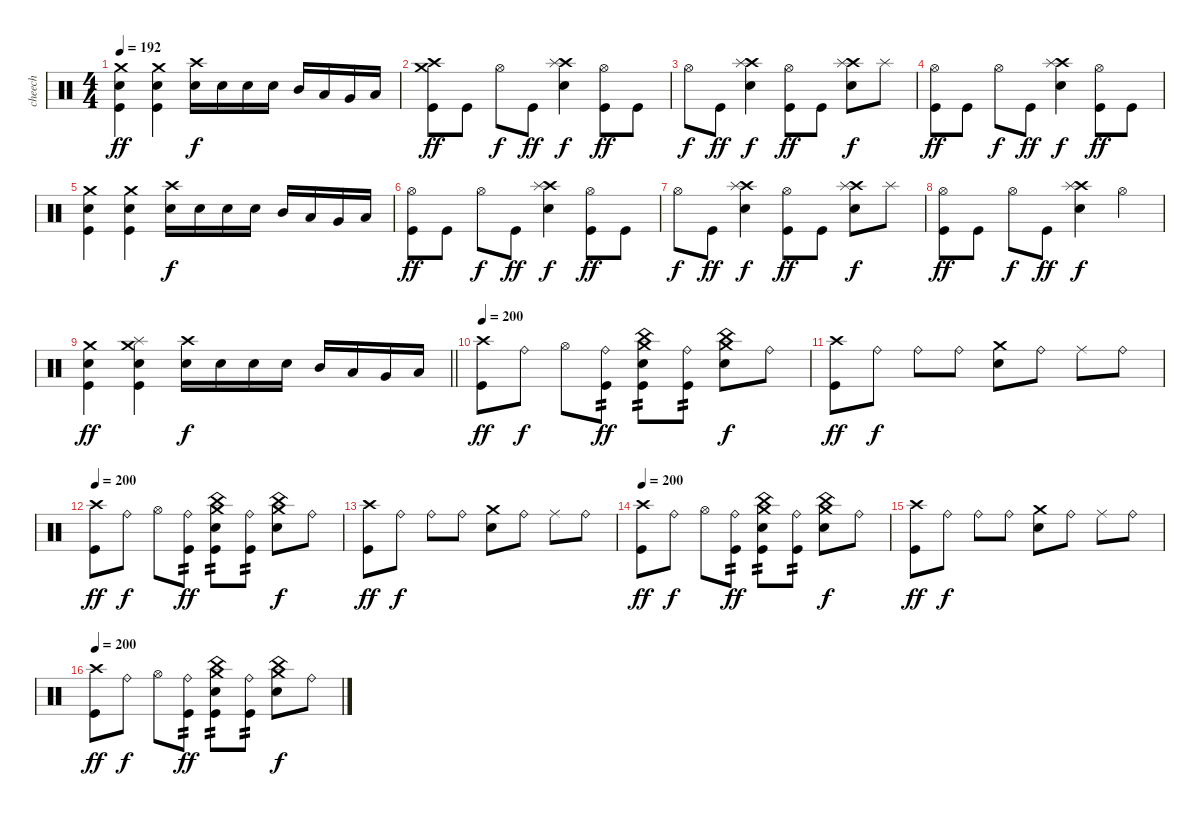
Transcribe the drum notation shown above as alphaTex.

\track ("cheech" "cheech") {instrument percussion}
\staff {score}
\articulation defaults
\ts (4 4)
\tempo 192
\clef neutral
\ks c
("Crash medium (hit)" "Electric Snare (hit)" "Kick (hit)"{tr (35 16)}).4{dy ff} ("Crash medium (hit)" "Electric Snare (hit)" "Kick (hit)").4 ("Crash high (hit)" "Electric Snare (hit)").16{dy f} "Electric Snare (hit)".16 "Electric Snare (hit)".16 "Electric Snare (hit)".16 "Mid Tom (hit)".16 "Low Tom (hit)".16 "Very Low Tom (hit)".16 "Low Floor Tom (hit)".16 |
("Crash high (hit)" "Crash medium (hit)" "Kick (hit)").8{dy ff} "Kick (hit)".8 "Hi-Hat (open)".8{dy f} "Kick (hit)".8{dy ff} ("Crash high (hit)" "Splash (hit)" "Electric Snare (hit)").4{dy f} ("Hi-Hat (open)" "Kick (hit)").8{dy ff} "Kick (hit)".8 |
"Hi-Hat (open)".8{dy f} "Kick (hit)".8{dy ff} ("Crash high (hit)" "Splash (hit)" "Electric Snare (hit)").4{dy f} ("Hi-Hat (open)" "Kick (hit)").8{dy ff} "Kick (hit)".8 ("Crash high (hit)" "Splash (hit)" "Electric Snare (hit)").8{dy f} "Splash (hit)".8 |
("Hi-Hat (open)" "Kick (hit)").8{dy ff} "Kick (hit)".8 "Hi-Hat (open)".8{dy f} "Kick (hit)".8{dy ff} ("Crash high (hit)" "Splash (hit)" "Electric Snare (hit)").4{dy f} ("Hi-Hat (open)" "Kick (hit)").8{dy ff} "Kick (hit)".8 |
("Crash medium (hit)" "Electric Snare (hit)" "Kick (hit)"{tr (35 16)}).4 ("Crash medium (hit)" "Electric Snare (hit)" "Kick (hit)").4 ("Crash high (hit)" "Electric Snare (hit)").16{dy f} "Electric Snare (hit)".16 "Electric Snare (hit)".16 "Electric Snare (hit)".16 "Mid Tom (hit)".16 "Low Tom (hit)".16 "Very Low Tom (hit)".16 "Low Floor Tom (hit)".16 |
("Hi-Hat (open)" "Kick (hit)").8{dy ff} "Kick (hit)".8 "Hi-Hat (open)".8{dy f} "Kick (hit)".8{dy ff} ("Crash high (hit)" "Splash (hit)" "Electric Snare (hit)").4{dy f} ("Hi-Hat (open)" "Kick (hit)").8{dy ff} "Kick (hit)".8 |
"Hi-Hat (open)".8{dy f} "Kick (hit)".8{dy ff} ("Crash high (hit)" "Splash (hit)" "Electric Snare (hit)").4{dy f} ("Hi-Hat (open)" "Kick (hit)").8{dy ff} "Kick (hit)".8 ("Crash high (hit)" "Splash (hit)" "Electric Snare (hit)").8{dy f} "Splash (hit)".8 |
("Hi-Hat (open)" "Kick (hit)").8{dy ff} "Kick (hit)".8 "Hi-Hat (open)".8{dy f} "Kick (hit)".8{dy ff} ("Crash high (hit)" "Splash (hit)" "Electric Snare (hit)").4{dy f} "Hi-Hat (open)".4 |
\barLineRight lightlight
("Crash medium (hit)" "Electric Snare (hit)" "Kick (hit)"{tr (35 16)}).4{dy ff} ("Crash medium (hit)" "Splash (hit)" "Electric Snare (hit)" "Kick (hit)").4 ("Crash high (hit)" "Electric Snare (hit)").16{dy f} "Electric Snare (hit)".16 "Electric Snare (hit)".16 "Electric Snare (hit)".16 "Mid Tom (hit)".16 "Low Tom (hit)".16 "Very Low Tom (hit)".16 "Low Floor Tom (hit)".16 |
\tempo 200
("Crash high (hit)" "Kick (hit)").8{dy ff} "Ride (bell)".8{dy f} "Hi-Hat (open)".8 ("Ride (bell)" "Kick (hit)").8{tp 2 dy ff} ("Crash medium (hit)" "China (hit)" "Electric Snare (hit)" "Kick (hit)").8{tp 2} ("Ride (bell)" "Kick (hit)").8{tp 2} ("Crash medium (hit)" "China (hit)" "Electric Snare (hit)").8{dy f} "Ride (bell)".8 |
("Crash high (hit)" "Kick (hit)").8{dy ff} "Ride (bell)".8{dy f} "Ride (bell)".8 "Ride (bell)".8 ("Crash medium (hit)" "Electric Snare (hit)").8 "Ride (bell)".8 "Ride (middle)".8 "Ride (bell)".8 |
\tempo 200
("Crash high (hit)" "Kick (hit)").8{dy ff} "Ride (bell)".8{dy f} "Hi-Hat (open)".8 ("Ride (bell)" "Kick (hit)").8{tp 2 dy ff} ("Crash medium (hit)" "China (hit)" "Electric Snare (hit)" "Kick (hit)").8{tp 2} ("Ride (bell)" "Kick (hit)").8{tp 2} ("Crash medium (hit)" "China (hit)" "Electric Snare (hit)").8{dy f} "Ride (bell)".8 |
("Crash high (hit)" "Kick (hit)").8{dy ff} "Ride (bell)".8{dy f} "Ride (bell)".8 "Ride (bell)".8 ("Crash medium (hit)" "Electric Snare (hit)").8 "Ride (bell)".8 "Ride (middle)".8 "Ride (bell)".8 |
\tempo 200
("Crash high (hit)" "Kick (hit)").8{dy ff} "Ride (bell)".8{dy f} "Hi-Hat (open)".8 ("Ride (bell)" "Kick (hit)").8{tp 2 dy ff} ("Crash medium (hit)" "China (hit)" "Electric Snare (hit)" "Kick (hit)").8{tp 2} ("Ride (bell)" "Kick (hit)").8{tp 2} ("Crash medium (hit)" "China (hit)" "Electric Snare (hit)").8{dy f} "Ride (bell)".8 |
("Crash high (hit)" "Kick (hit)").8{dy ff} "Ride (bell)".8{dy f} "Ride (bell)".8 "Ride (bell)".8 ("Crash medium (hit)" "Electric Snare (hit)").8 "Ride (bell)".8 "Ride (middle)".8 "Ride (bell)".8 |
\tempo 200
("Crash high (hit)" "Kick (hit)").8{dy ff} "Ride (bell)".8{dy f} "Hi-Hat (open)".8 ("Ride (bell)" "Kick (hit)").8{tp 2 dy ff} ("Crash medium (hit)" "China (hit)" "Electric Snare (hit)" "Kick (hit)").8{tp 2} ("Ride (bell)" "Kick (hit)").8{tp 2} ("Crash medium (hit)" "China (hit)" "Electric Snare (hit)").8{dy f} "Ride (bell)".8
